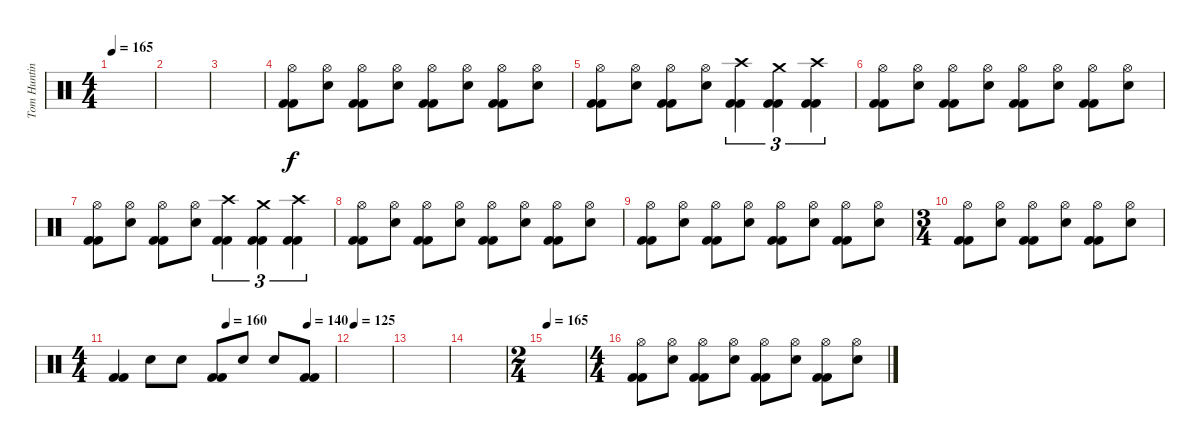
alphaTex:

\track ("Tom Hunting" "Tom Huntin") {instrument percussion}
\staff {score}
\articulation defaults
\ts (4 4)
\tempo 165
\clef neutral
\ks c
|
|
|
("Kick (hit) 2" "Kick (hit) 2" "Hi-Hat (open)").8 ("Electric Snare (hit)" "Hi-Hat (open)").8 ("Kick (hit) 2" "Kick (hit) 2" "Hi-Hat (open)").8 ("Electric Snare (hit)" "Hi-Hat (open)").8 ("Kick (hit) 2" "Kick (hit) 2" "Hi-Hat (open)").8 ("Electric Snare (hit)" "Hi-Hat (open)").8 ("Kick (hit) 2" "Kick (hit) 2" "Hi-Hat (open)").8 ("Electric Snare (hit)" "Hi-Hat (open)").8 |
("Kick (hit) 2" "Kick (hit) 2" "Hi-Hat (open)").8 ("Electric Snare (hit)" "Hi-Hat (open)").8 ("Kick (hit) 2" "Kick (hit) 2" "Hi-Hat (open)").8 ("Electric Snare (hit)" "Hi-Hat (open)").8 ("Kick (hit) 2" "Kick (hit) 2" "Crash high (hit)").4{tu (3 2)} ("Kick (hit) 2" "Kick (hit) 2" "Crash medium (hit)").4{tu (3 2)} ("Kick (hit) 2" "Kick (hit) 2" "Crash high (hit)").4{tu (3 2)} |
("Kick (hit) 2" "Kick (hit) 2" "Hi-Hat (open)").8 ("Electric Snare (hit)" "Hi-Hat (open)").8 ("Kick (hit) 2" "Kick (hit) 2" "Hi-Hat (open)").8 ("Electric Snare (hit)" "Hi-Hat (open)").8 ("Kick (hit) 2" "Kick (hit) 2" "Hi-Hat (open)").8 ("Electric Snare (hit)" "Hi-Hat (open)").8 ("Kick (hit) 2" "Kick (hit) 2" "Hi-Hat (open)").8 ("Electric Snare (hit)" "Hi-Hat (open)").8 |
("Kick (hit) 2" "Kick (hit) 2" "Hi-Hat (open)").8 ("Electric Snare (hit)" "Hi-Hat (open)").8 ("Kick (hit) 2" "Kick (hit) 2" "Hi-Hat (open)").8 ("Electric Snare (hit)" "Hi-Hat (open)").8 ("Kick (hit) 2" "Kick (hit) 2" "Crash high (hit)").4{tu (3 2)} ("Kick (hit) 2" "Kick (hit) 2" "Crash medium (hit)").4{tu (3 2)} ("Kick (hit) 2" "Kick (hit) 2" "Crash high (hit)").4{tu (3 2)} |
("Kick (hit) 2" "Kick (hit) 2" "Hi-Hat (open)").8 ("Electric Snare (hit)" "Hi-Hat (open)").8 ("Kick (hit) 2" "Kick (hit) 2" "Hi-Hat (open)").8 ("Electric Snare (hit)" "Hi-Hat (open)").8 ("Kick (hit) 2" "Kick (hit) 2" "Hi-Hat (open)").8 ("Electric Snare (hit)" "Hi-Hat (open)").8 ("Kick (hit) 2" "Kick (hit) 2" "Hi-Hat (open)").8 ("Electric Snare (hit)" "Hi-Hat (open)").8 |
("Kick (hit) 2" "Kick (hit) 2" "Hi-Hat (open)").8 ("Electric Snare (hit)" "Hi-Hat (open)").8 ("Kick (hit) 2" "Kick (hit) 2" "Hi-Hat (open)").8 ("Electric Snare (hit)" "Hi-Hat (open)").8 ("Kick (hit) 2" "Kick (hit) 2" "Hi-Hat (open)").8 ("Electric Snare (hit)" "Hi-Hat (open)").8 ("Kick (hit) 2" "Kick (hit) 2" "Hi-Hat (open)").8 ("Electric Snare (hit)" "Hi-Hat (open)").8 |
\ts (3 4)
("Kick (hit) 2" "Kick (hit) 2" "Hi-Hat (open)").8 ("Electric Snare (hit)" "Hi-Hat (open)").8 ("Kick (hit) 2" "Kick (hit) 2" "Hi-Hat (open)").8 ("Electric Snare (hit)" "Hi-Hat (open)").8 ("Kick (hit) 2" "Kick (hit) 2" "Hi-Hat (open)").8 ("Electric Snare (hit)" "Hi-Hat (open)").8 |
\ts (4 4)
\tempo (160 0.5)
\tempo (140 0.875)
("Kick (hit) 2" "Kick (hit) 2").4 "Electric Snare (hit)".8 "Electric Snare (hit)".8 ("Kick (hit) 2" "Kick (hit) 2").8 "Electric Snare (hit)".8 "Electric Snare (hit)".8 ("Kick (hit) 2" "Kick (hit) 2").8 |
\tempo 125
|
|
|
\ts (2 4)
\tempo 165
|
\ts (4 4)
("Kick (hit) 2" "Kick (hit) 2" "Hi-Hat (open)").8 ("Electric Snare (hit)" "Hi-Hat (open)").8 ("Kick (hit) 2" "Kick (hit) 2" "Hi-Hat (open)").8 ("Electric Snare (hit)" "Hi-Hat (open)").8 ("Kick (hit) 2" "Kick (hit) 2" "Hi-Hat (open)").8 ("Electric Snare (hit)" "Hi-Hat (open)").8 ("Kick (hit) 2" "Kick (hit) 2" "Hi-Hat (open)").8 ("Electric Snare (hit)" "Hi-Hat (open)").8
